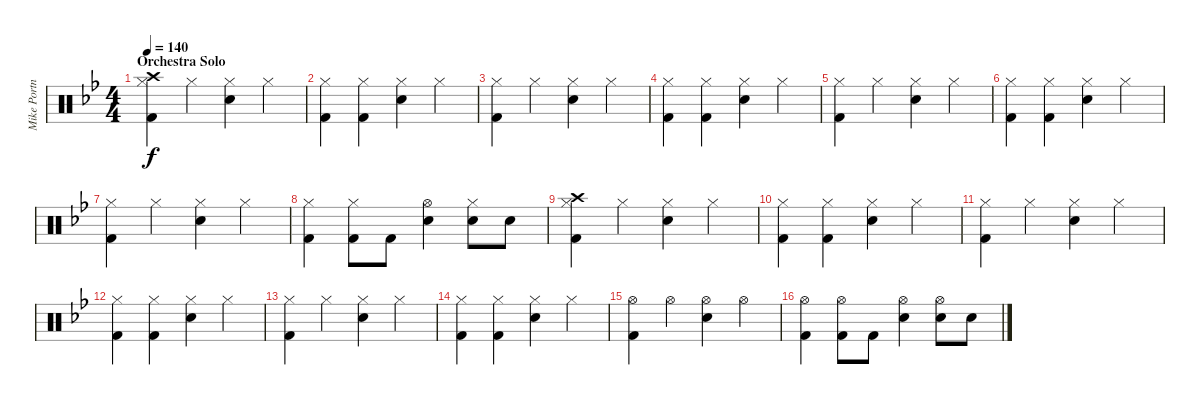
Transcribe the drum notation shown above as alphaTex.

\track ("Mike Portnoy - Drums" "Mike Portn") {instrument percussion}
\staff {score}
\articulation defaults
\ts (4 4)
\section ("" "Orchestra Solo")
\tempo 140
\clef neutral
\ks bb
("Crash high (hit)" "Hi-Hat (closed)" "Kick (hit) 2").4{dy f} "Hi-Hat (closed)".4 ("Hi-Hat (closed)" "Snare (hit) 2").4 "Hi-Hat (closed)".4 |
("Hi-Hat (closed)" "Kick (hit) 2").4 ("Hi-Hat (closed)" "Kick (hit) 2").4 ("Hi-Hat (closed)" "Snare (hit) 2").4 "Hi-Hat (closed)".4 |
("Hi-Hat (closed)" "Kick (hit) 2").4 "Hi-Hat (closed)".4 ("Hi-Hat (closed)" "Snare (hit) 2").4 "Hi-Hat (closed)".4 |
("Hi-Hat (closed)" "Kick (hit) 2").4 ("Hi-Hat (closed)" "Kick (hit) 2").4 ("Hi-Hat (closed)" "Snare (hit) 2").4 "Hi-Hat (closed)".4 |
("Hi-Hat (closed)" "Kick (hit) 2").4 "Hi-Hat (closed)".4 ("Hi-Hat (closed)" "Snare (hit) 2").4 "Hi-Hat (closed)".4 |
("Hi-Hat (closed)" "Kick (hit) 2").4 ("Hi-Hat (closed)" "Kick (hit) 2").4 ("Hi-Hat (closed)" "Snare (hit) 2").4 "Hi-Hat (closed)".4 |
("Hi-Hat (closed)" "Kick (hit) 2").4 "Hi-Hat (closed)".4 ("Hi-Hat (closed)" "Snare (hit) 2").4 "Hi-Hat (closed)".4 |
("Hi-Hat (closed)" "Kick (hit) 2").4 ("Hi-Hat (closed)" "Kick (hit) 2").8 "Kick (hit) 2".8 ("Hi-Hat (open)" "Snare (hit) 2").4 ("Hi-Hat (closed)" "Snare (hit) 2").8 "Snare (hit) 2".8 |
("Crash high (hit)" "Hi-Hat (closed)" "Kick (hit) 2").4 "Hi-Hat (closed)".4 ("Hi-Hat (closed)" "Snare (hit) 2").4 "Hi-Hat (closed)".4 |
("Hi-Hat (closed)" "Kick (hit) 2").4 ("Hi-Hat (closed)" "Kick (hit) 2").4 ("Hi-Hat (closed)" "Snare (hit) 2").4 "Hi-Hat (closed)".4 |
("Hi-Hat (closed)" "Kick (hit) 2").4 "Hi-Hat (closed)".4 ("Hi-Hat (closed)" "Snare (hit) 2").4 "Hi-Hat (closed)".4 |
("Hi-Hat (closed)" "Kick (hit) 2").4 ("Hi-Hat (closed)" "Kick (hit) 2").4 ("Hi-Hat (closed)" "Snare (hit) 2").4 "Hi-Hat (closed)".4 |
("Hi-Hat (closed)" "Kick (hit) 2").4 "Hi-Hat (closed)".4 ("Hi-Hat (closed)" "Snare (hit) 2").4 "Hi-Hat (closed)".4 |
("Hi-Hat (closed)" "Kick (hit) 2").4 ("Hi-Hat (closed)" "Kick (hit) 2").4 ("Hi-Hat (closed)" "Snare (hit) 2").4 "Hi-Hat (closed)".4 |
("Hi-Hat (open)" "Kick (hit) 2").4 "Hi-Hat (open)".4 ("Hi-Hat (open)" "Snare (hit) 2").4 "Hi-Hat (open)".4 |
("Hi-Hat (open)" "Kick (hit) 2").4 ("Hi-Hat (open)" "Kick (hit) 2").8 "Kick (hit) 2".8 ("Hi-Hat (open)" "Snare (hit) 2").4 ("Hi-Hat (open)" "Snare (hit) 2").8 "Snare (hit) 2".8
